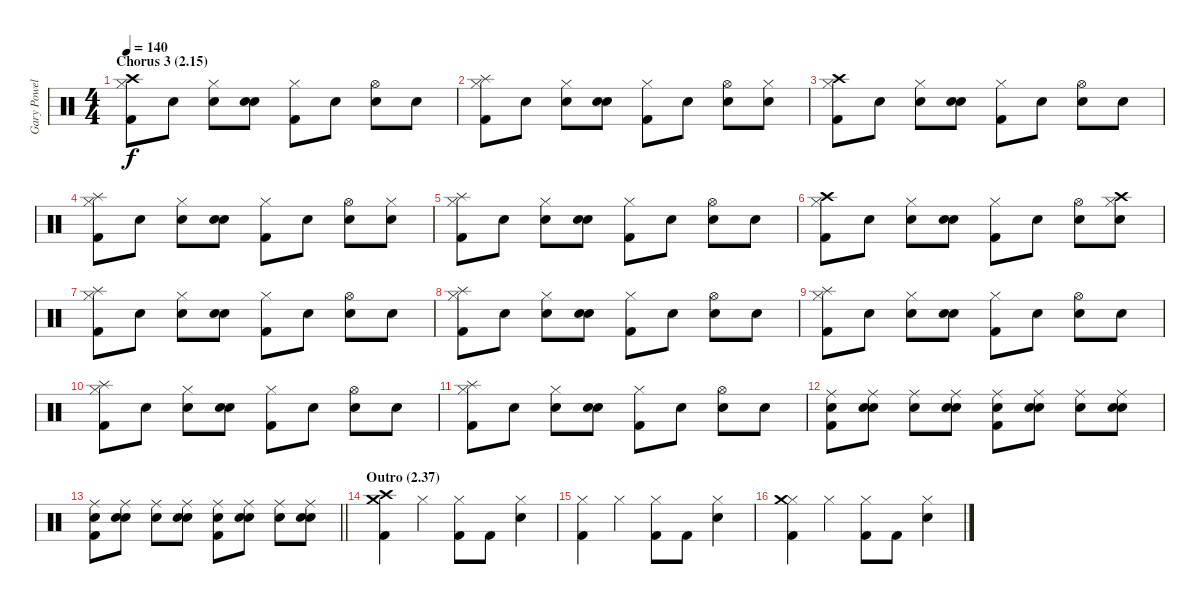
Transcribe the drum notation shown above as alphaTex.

\track ("Gary Powell (Drums)" "Gary Powel") {instrument percussion}
\staff {score}
\articulation defaults
\ts (4 4)
\section ("" "Chorus 3 (2.15)")
\tempo 140
\clef neutral
\ks c
("Kick (hit) 2" "Crash high (hit)" "Hi-Hat (closed)").8{dy f} "Snare (hit)".8 ("Snare (hit) 2" "Hi-Hat (closed)").8 ("Snare (hit)" "Snare (hit) 2").8 ("Kick (hit) 2" "Hi-Hat (closed)").8 "Snare (hit)".8 ("Snare (hit) 2" "Hi-Hat (open)").8 "Snare (hit)".8 |
("Kick (hit) 2" "Splash (hit)" "Hi-Hat (closed)").8 "Snare (hit)".8 ("Snare (hit) 2" "Hi-Hat (closed)").8 ("Snare (hit)" "Snare (hit) 2").8 ("Kick (hit) 2" "Hi-Hat (closed)").8 "Snare (hit)".8 ("Snare (hit) 2" "Hi-Hat (open)").8 ("Snare (hit)" "Hi-Hat (closed)").8 |
("Kick (hit) 2" "Crash high (hit)" "Hi-Hat (closed)").8 "Snare (hit)".8 ("Snare (hit) 2" "Hi-Hat (closed)").8 ("Snare (hit)" "Snare (hit) 2").8 ("Kick (hit) 2" "Hi-Hat (closed)").8 "Snare (hit)".8 ("Snare (hit) 2" "Hi-Hat (open)").8 "Snare (hit)".8 |
("Kick (hit) 2" "Splash (hit)" "Hi-Hat (closed)").8 "Snare (hit)".8 ("Snare (hit) 2" "Hi-Hat (closed)").8 ("Snare (hit)" "Snare (hit) 2").8 ("Kick (hit) 2" "Hi-Hat (closed)").8 "Snare (hit)".8 ("Snare (hit) 2" "Hi-Hat (open)").8 ("Snare (hit)" "Hi-Hat (closed)").8 |
("Kick (hit) 2" "Splash (hit)" "Hi-Hat (closed)").8 "Snare (hit)".8 ("Snare (hit) 2" "Hi-Hat (closed)").8 ("Snare (hit)" "Snare (hit) 2").8 ("Kick (hit) 2" "Hi-Hat (closed)").8 "Snare (hit)".8 ("Snare (hit) 2" "Hi-Hat (open)").8 "Snare (hit)".8 |
("Kick (hit) 2" "Crash high (hit)" "Hi-Hat (closed)").8 "Snare (hit)".8 ("Snare (hit) 2" "Hi-Hat (closed)").8 ("Snare (hit)" "Snare (hit) 2").8 ("Kick (hit) 2" "Hi-Hat (closed)").8 "Snare (hit)".8 ("Snare (hit) 2" "Hi-Hat (open)").8 ("Snare (hit)" "Crash high (hit)" "Hi-Hat (closed)").8 |
("Kick (hit) 2" "Splash (hit)" "Hi-Hat (closed)").8 "Snare (hit)".8 ("Snare (hit) 2" "Hi-Hat (closed)").8 ("Snare (hit)" "Snare (hit) 2").8 ("Kick (hit) 2" "Hi-Hat (closed)").8 "Snare (hit)".8 ("Snare (hit) 2" "Hi-Hat (open)").8 "Snare (hit)".8 |
("Kick (hit) 2" "Splash (hit)" "Hi-Hat (closed)").8 "Snare (hit)".8 ("Snare (hit) 2" "Hi-Hat (closed)").8 ("Snare (hit)" "Snare (hit) 2").8 ("Kick (hit) 2" "Hi-Hat (closed)").8 "Snare (hit)".8 ("Snare (hit) 2" "Hi-Hat (open)").8 "Snare (hit)".8 |
("Kick (hit) 2" "Splash (hit)" "Hi-Hat (closed)").8 "Snare (hit)".8 ("Snare (hit) 2" "Hi-Hat (closed)").8 ("Snare (hit)" "Snare (hit) 2").8 ("Kick (hit) 2" "Hi-Hat (closed)").8 "Snare (hit)".8 ("Snare (hit) 2" "Hi-Hat (open)").8 "Snare (hit)".8 |
("Kick (hit) 2" "Splash (hit)" "Hi-Hat (closed)").8 "Snare (hit)".8 ("Snare (hit) 2" "Hi-Hat (closed)").8 ("Snare (hit)" "Snare (hit) 2").8 ("Kick (hit) 2" "Hi-Hat (closed)").8 "Snare (hit)".8 ("Snare (hit) 2" "Hi-Hat (open)").8 "Snare (hit)".8 |
("Kick (hit) 2" "Splash (hit)" "Hi-Hat (closed)").8 "Snare (hit)".8 ("Snare (hit) 2" "Hi-Hat (closed)").8 ("Snare (hit)" "Snare (hit) 2").8 ("Kick (hit) 2" "Hi-Hat (closed)").8 "Snare (hit)".8 ("Snare (hit) 2" "Hi-Hat (open)").8 "Snare (hit)".8 |
("Kick (hit) 2" "Snare (hit) 2" "Ride (middle)").8 ("Snare (hit)" "Snare (hit) 2" "Ride (middle)").8 ("Snare (hit) 2" "Ride (middle)").8 ("Snare (hit)" "Snare (hit) 2" "Ride (middle)").8 ("Kick (hit) 2" "Snare (hit) 2" "Ride (middle)").8 ("Snare (hit)" "Snare (hit) 2" "Ride (middle)").8 ("Snare (hit) 2" "Ride (middle)").8 ("Snare (hit)" "Snare (hit) 2" "Ride (middle)").8 |
\barLineRight lightlight
("Kick (hit) 2" "Snare (hit) 2" "Ride (middle)").8 ("Snare (hit)" "Snare (hit) 2" "Ride (middle)").8 ("Snare (hit) 2" "Ride (middle)").8 ("Snare (hit)" "Snare (hit) 2" "Ride (middle)").8 ("Kick (hit) 2" "Snare (hit) 2" "Ride (middle)").8 ("Snare (hit)" "Snare (hit) 2" "Ride (middle)").8 ("Snare (hit) 2" "Ride (middle)").8 ("Snare (hit)" "Snare (hit) 2" "Ride (middle)").8 |
\section ("" "Outro (2.37)")
("Kick (hit) 2" "Crash high (hit)" "Crash medium (hit)").4 "Hi-Hat (closed)".4 ("Kick (hit) 2" "Hi-Hat (closed)").8 "Kick (hit) 2".8 ("Hi-Hat (closed)" "Snare (hit) 2").4 |
("Kick (hit) 2" "Hi-Hat (closed)").4 "Hi-Hat (closed)".4 ("Kick (hit) 2" "Hi-Hat (closed)").8 "Kick (hit) 2".8 ("Hi-Hat (closed)" "Snare (hit) 2").4 |
("Kick (hit) 2" "Hi-Hat (closed)" "Crash medium (hit)").4 "Hi-Hat (closed)".4 ("Kick (hit) 2" "Hi-Hat (closed)").8 "Kick (hit) 2".8 ("Hi-Hat (closed)" "Snare (hit) 2").4
